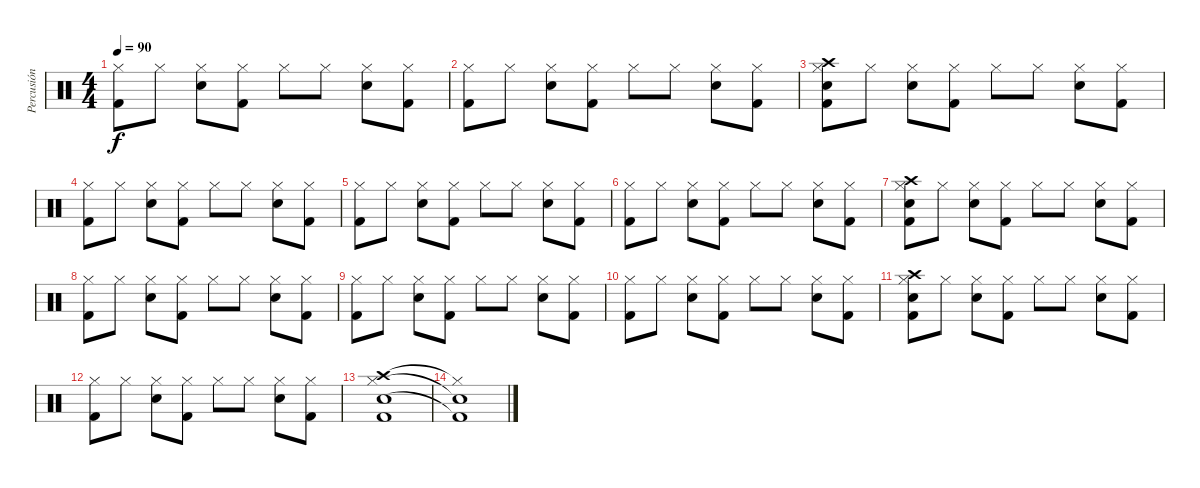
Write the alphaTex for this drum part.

\track ("Percusión" "Percusión") {instrument percussion}
\staff {score}
\articulation defaults
\ts (4 4)
\tempo 90
\clef neutral
\ks c
("Hi-Hat (closed)" "Kick (hit) 2").8{dy f} "Hi-Hat (closed)".8 ("Hi-Hat (closed)" "Snare (hit) 2").8 ("Hi-Hat (closed)" "Kick (hit) 2").8 "Hi-Hat (closed)".8 "Hi-Hat (closed)".8 ("Hi-Hat (closed)" "Snare (hit) 2").8 ("Hi-Hat (closed)" "Kick (hit) 2").8 |
("Hi-Hat (closed)" "Kick (hit) 2").8 "Hi-Hat (closed)".8 ("Hi-Hat (closed)" "Snare (hit) 2").8 ("Hi-Hat (closed)" "Kick (hit) 2").8 "Hi-Hat (closed)".8 "Hi-Hat (closed)".8 ("Hi-Hat (closed)" "Snare (hit) 2").8 ("Hi-Hat (closed)" "Kick (hit) 2").8 |
("Crash high (hit)" "Hi-Hat (closed)" "Snare (hit) 2" "Kick (hit) 2").8 "Hi-Hat (closed)".8 ("Hi-Hat (closed)" "Snare (hit) 2").8 ("Hi-Hat (closed)" "Kick (hit) 2").8 "Hi-Hat (closed)".8 "Hi-Hat (closed)".8 ("Hi-Hat (closed)" "Snare (hit) 2").8 ("Hi-Hat (closed)" "Kick (hit) 2").8 |
("Hi-Hat (closed)" "Kick (hit) 2").8 "Hi-Hat (closed)".8 ("Hi-Hat (closed)" "Snare (hit) 2").8 ("Hi-Hat (closed)" "Kick (hit) 2").8 "Hi-Hat (closed)".8 "Hi-Hat (closed)".8 ("Hi-Hat (closed)" "Snare (hit) 2").8 ("Hi-Hat (closed)" "Kick (hit) 2").8 |
("Hi-Hat (closed)" "Kick (hit) 2").8 "Hi-Hat (closed)".8 ("Hi-Hat (closed)" "Snare (hit) 2").8 ("Hi-Hat (closed)" "Kick (hit) 2").8 "Hi-Hat (closed)".8 "Hi-Hat (closed)".8 ("Hi-Hat (closed)" "Snare (hit) 2").8 ("Hi-Hat (closed)" "Kick (hit) 2").8 |
("Hi-Hat (closed)" "Kick (hit) 2").8 "Hi-Hat (closed)".8 ("Hi-Hat (closed)" "Snare (hit) 2").8 ("Hi-Hat (closed)" "Kick (hit) 2").8 "Hi-Hat (closed)".8 "Hi-Hat (closed)".8 ("Hi-Hat (closed)" "Snare (hit) 2").8 ("Hi-Hat (closed)" "Kick (hit) 2").8 |
("Crash high (hit)" "Hi-Hat (closed)" "Snare (hit) 2" "Kick (hit) 2").8 "Hi-Hat (closed)".8 ("Hi-Hat (closed)" "Snare (hit) 2").8 ("Hi-Hat (closed)" "Kick (hit) 2").8 "Hi-Hat (closed)".8 "Hi-Hat (closed)".8 ("Hi-Hat (closed)" "Snare (hit) 2").8 ("Hi-Hat (closed)" "Kick (hit) 2").8 |
("Hi-Hat (closed)" "Kick (hit) 2").8 "Hi-Hat (closed)".8 ("Hi-Hat (closed)" "Snare (hit) 2").8 ("Hi-Hat (closed)" "Kick (hit) 2").8 "Hi-Hat (closed)".8 "Hi-Hat (closed)".8 ("Hi-Hat (closed)" "Snare (hit) 2").8 ("Hi-Hat (closed)" "Kick (hit) 2").8 |
("Hi-Hat (closed)" "Kick (hit) 2").8 "Hi-Hat (closed)".8 ("Hi-Hat (closed)" "Snare (hit) 2").8 ("Hi-Hat (closed)" "Kick (hit) 2").8 "Hi-Hat (closed)".8 "Hi-Hat (closed)".8 ("Hi-Hat (closed)" "Snare (hit) 2").8 ("Hi-Hat (closed)" "Kick (hit) 2").8 |
("Hi-Hat (closed)" "Kick (hit) 2").8 "Hi-Hat (closed)".8 ("Hi-Hat (closed)" "Snare (hit) 2").8 ("Hi-Hat (closed)" "Kick (hit) 2").8 "Hi-Hat (closed)".8 "Hi-Hat (closed)".8 ("Hi-Hat (closed)" "Snare (hit) 2").8 ("Hi-Hat (closed)" "Kick (hit) 2").8 |
("Crash high (hit)" "Hi-Hat (closed)" "Snare (hit) 2" "Kick (hit) 2").8 "Hi-Hat (closed)".8 ("Hi-Hat (closed)" "Snare (hit) 2").8 ("Hi-Hat (closed)" "Kick (hit) 2").8 "Hi-Hat (closed)".8 "Hi-Hat (closed)".8 ("Hi-Hat (closed)" "Snare (hit) 2").8 ("Hi-Hat (closed)" "Kick (hit) 2").8 |
("Hi-Hat (closed)" "Kick (hit) 2").8 "Hi-Hat (closed)".8 ("Hi-Hat (closed)" "Snare (hit) 2").8 ("Hi-Hat (closed)" "Kick (hit) 2").8 "Hi-Hat (closed)".8 "Hi-Hat (closed)".8 ("Hi-Hat (closed)" "Snare (hit) 2").8 ("Hi-Hat (closed)" "Kick (hit) 2").8 |
("Crash high (hit)" "Hi-Hat (closed)" "Snare (hit) 2" "Kick (hit) 2").1 |
("Hi-Hat (closed)"{t} "Snare (hit) 2"{t} "Kick (hit) 2"{t}).1
